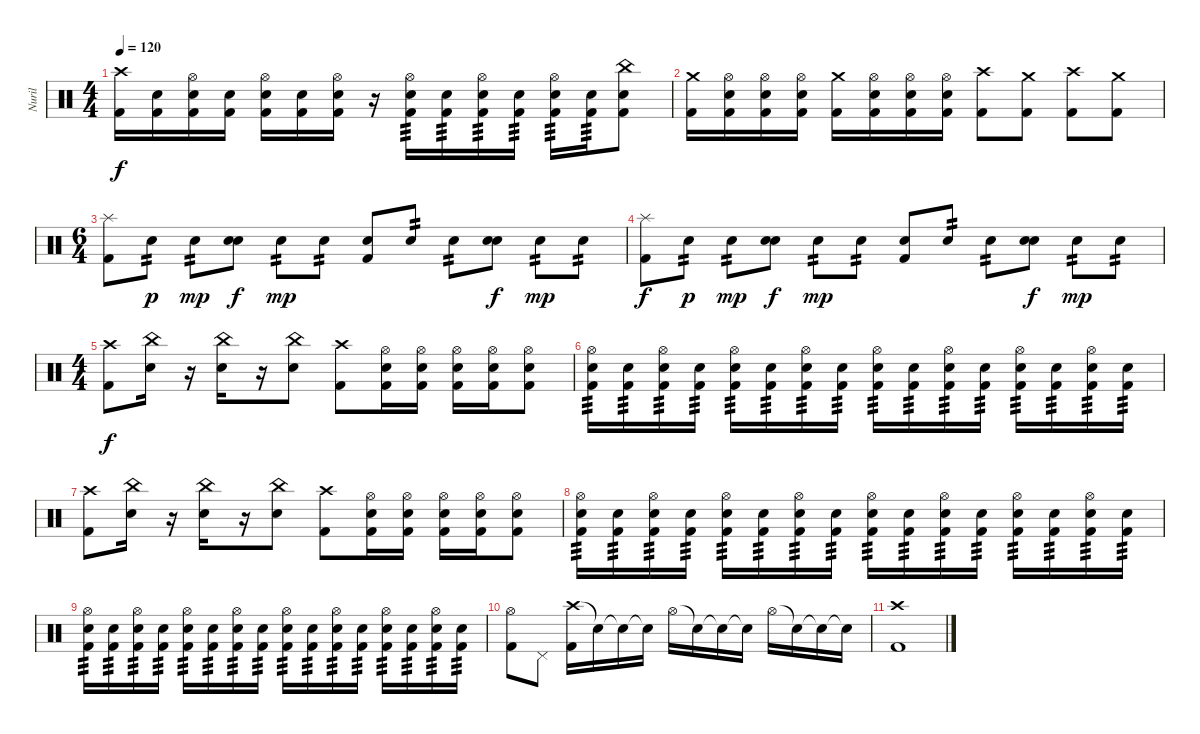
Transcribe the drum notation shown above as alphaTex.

\track ("Nuril" "Nuril") {instrument percussion}
\staff {score}
\articulation defaults
\ts (4 4)
\tempo 120
\clef neutral
\ks c
("Crash high (hit)" "Kick (hit) 2").16{dy f} ("Electric Snare (hit)" "Kick (hit) 2").16 ("Hi-Hat (open)" "Electric Snare (hit)" "Kick (hit) 2").16 ("Electric Snare (hit)" "Kick (hit) 2").16 ("Hi-Hat (open)" "Electric Snare (hit)" "Kick (hit) 2").16 ("Electric Snare (hit)" "Kick (hit) 2").16 ("Hi-Hat (open)" "Electric Snare (hit)" "Kick (hit) 2").16 r.16 ("Hi-Hat (open)" "Electric Snare (hit)" "Kick (hit) 2").16{tp 3} ("Electric Snare (hit)" "Kick (hit) 2").16{tp 3} ("Hi-Hat (open)" "Electric Snare (hit)" "Kick (hit) 2").16{tp 3} ("Electric Snare (hit)" "Kick (hit) 2").16{tp 3} ("Hi-Hat (open)" "Electric Snare (hit)" "Kick (hit) 2").16{tp 3} ("Electric Snare (hit)" "Kick (hit) 2").16{tp 3} ("China (hit)" "Electric Snare (hit)" "Kick (hit) 2").8 |
("Crash medium (hit)" "Kick (hit) 2").16 ("Hi-Hat (open)" "Electric Snare (hit)" "Kick (hit) 2").16 ("Hi-Hat (open)" "Electric Snare (hit)" "Kick (hit) 2").16 ("Hi-Hat (open)" "Electric Snare (hit)" "Kick (hit) 2").16 ("Crash medium (hit)" "Kick (hit) 2").16 ("Hi-Hat (open)" "Electric Snare (hit)" "Kick (hit) 2").16 ("Hi-Hat (open)" "Electric Snare (hit)" "Kick (hit) 2").16 ("Hi-Hat (open)" "Electric Snare (hit)" "Kick (hit) 2").16 ("Crash high (hit)" "Kick (hit) 2").8 ("Crash medium (hit)" "Kick (hit) 2").8 ("Crash high (hit)" "Kick (hit) 2").8 ("Crash medium (hit)" "Kick (hit) 2").8 |
\ts (6 4)
("Splash (hit)" "Kick (hit) 2").8 "Electric Snare (hit)".8{tp 2 dy p} "Electric Snare (hit)".8{tp 2 dy mp} ("Electric Snare (hit)" "Electric Snare (hit)").8{bd 240 dy f} "Electric Snare (hit)".8{tp 2 dy mp} "Electric Snare (hit)".8{tp 2} ("Electric Snare (hit)" "Kick (hit) 2").8 "Electric Snare (hit)".8{tp 2} "Electric Snare (hit)".8{tp 2} ("Electric Snare (hit)" "Electric Snare (hit)").8{bd 240 dy f} "Electric Snare (hit)".8{tp 2 dy mp} "Electric Snare (hit)".8{tp 2} |
("Splash (hit)" "Kick (hit) 2").8{dy f} "Electric Snare (hit)".8{tp 2 dy p} "Electric Snare (hit)".8{tp 2 dy mp} ("Electric Snare (hit)" "Electric Snare (hit)").8{bd 240 dy f} "Electric Snare (hit)".8{tp 2 dy mp} "Electric Snare (hit)".8{tp 2} ("Electric Snare (hit)" "Kick (hit) 2").8 "Electric Snare (hit)".8{tp 2} "Electric Snare (hit)".8{tp 2} ("Electric Snare (hit)" "Electric Snare (hit)").8{bd 240 dy f} "Electric Snare (hit)".8{tp 2 dy mp} "Electric Snare (hit)".8{tp 2} |
\ts (4 4)
("Crash high (hit)" "Kick (hit) 2").8{dy f} ("China (hit)" "Electric Snare (hit)").16 r.16 ("China (hit)" "Electric Snare (hit)").16 r.16 ("China (hit)" "Electric Snare (hit)").8 ("Crash high (hit)" "Kick (hit) 2").8 ("Hi-Hat (open)" "Electric Snare (hit)" "Kick (hit) 2").16 ("Hi-Hat (open)" "Electric Snare (hit)" "Kick (hit) 2").16 ("Hi-Hat (open)" "Electric Snare (hit)" "Kick (hit) 2").16 ("Hi-Hat (open)" "Electric Snare (hit)" "Kick (hit) 2").16 ("Hi-Hat (open)" "Electric Snare (hit)" "Kick (hit) 2").8 |
("Hi-Hat (open)" "Electric Snare (hit)" "Kick (hit) 2").16{tp 3} ("Electric Snare (hit)" "Kick (hit) 2").16{tp 3} ("Hi-Hat (open)" "Electric Snare (hit)" "Kick (hit) 2").16{tp 3} ("Electric Snare (hit)" "Kick (hit) 2").16{tp 3} ("Hi-Hat (open)" "Electric Snare (hit)" "Kick (hit) 2").16{tp 3} ("Electric Snare (hit)" "Kick (hit) 2").16{tp 3} ("Hi-Hat (open)" "Electric Snare (hit)" "Kick (hit) 2").16{tp 3} ("Electric Snare (hit)" "Kick (hit) 2").16{tp 3} ("Hi-Hat (open)" "Electric Snare (hit)" "Kick (hit) 2").16{tp 3} ("Electric Snare (hit)" "Kick (hit) 2").16{tp 3} ("Hi-Hat (open)" "Electric Snare (hit)" "Kick (hit) 2").16{tp 3} ("Electric Snare (hit)" "Kick (hit) 2").16{tp 3} ("Hi-Hat (open)" "Electric Snare (hit)" "Kick (hit) 2").16{tp 3} ("Electric Snare (hit)" "Kick (hit) 2").16{tp 3} ("Hi-Hat (open)" "Electric Snare (hit)" "Kick (hit) 2").16{tp 3} ("Electric Snare (hit)" "Kick (hit) 2").16{tp 3} |
("Crash high (hit)" "Kick (hit) 2").8 ("China (hit)" "Electric Snare (hit)").16 r.16 ("China (hit)" "Electric Snare (hit)").16 r.16 ("China (hit)" "Electric Snare (hit)").8 ("Crash high (hit)" "Kick (hit) 2").8 ("Hi-Hat (open)" "Electric Snare (hit)" "Kick (hit) 2").16 ("Hi-Hat (open)" "Electric Snare (hit)" "Kick (hit) 2").16 ("Hi-Hat (open)" "Electric Snare (hit)" "Kick (hit) 2").16 ("Hi-Hat (open)" "Electric Snare (hit)" "Kick (hit) 2").16 ("Hi-Hat (open)" "Electric Snare (hit)" "Kick (hit) 2").8 |
("Hi-Hat (open)" "Electric Snare (hit)" "Kick (hit) 2").16{tp 3} ("Electric Snare (hit)" "Kick (hit) 2").16{tp 3} ("Hi-Hat (open)" "Electric Snare (hit)" "Kick (hit) 2").16{tp 3} ("Electric Snare (hit)" "Kick (hit) 2").16{tp 3} ("Hi-Hat (open)" "Electric Snare (hit)" "Kick (hit) 2").16{tp 3} ("Electric Snare (hit)" "Kick (hit) 2").16{tp 3} ("Hi-Hat (open)" "Electric Snare (hit)" "Kick (hit) 2").16{tp 3} ("Electric Snare (hit)" "Kick (hit) 2").16{tp 3} ("Hi-Hat (open)" "Electric Snare (hit)" "Kick (hit) 2").16{tp 3} ("Electric Snare (hit)" "Kick (hit) 2").16{tp 3} ("Hi-Hat (open)" "Electric Snare (hit)" "Kick (hit) 2").16{tp 3} ("Electric Snare (hit)" "Kick (hit) 2").16{tp 3} ("Hi-Hat (open)" "Electric Snare (hit)" "Kick (hit) 2").16{tp 3} ("Electric Snare (hit)" "Kick (hit) 2").16{tp 3} ("Hi-Hat (open)" "Electric Snare (hit)" "Kick (hit) 2").16{tp 3} ("Electric Snare (hit)" "Kick (hit) 2").16{tp 3} |
("Hi-Hat (open)" "Electric Snare (hit)" "Kick (hit) 2").16{tp 3} ("Electric Snare (hit)" "Kick (hit) 2").16{tp 3} ("Hi-Hat (open)" "Electric Snare (hit)" "Kick (hit) 2").16{tp 3} ("Electric Snare (hit)" "Kick (hit) 2").16{tp 3} ("Hi-Hat (open)" "Electric Snare (hit)" "Kick (hit) 2").16{tp 3} ("Electric Snare (hit)" "Kick (hit) 2").16{tp 3} ("Hi-Hat (open)" "Electric Snare (hit)" "Kick (hit) 2").16{tp 3} ("Electric Snare (hit)" "Kick (hit) 2").16{tp 3} ("Hi-Hat (open)" "Electric Snare (hit)" "Kick (hit) 2").16{tp 3} ("Electric Snare (hit)" "Kick (hit) 2").16{tp 3} ("Hi-Hat (open)" "Electric Snare (hit)" "Kick (hit) 2").16{tp 3} ("Electric Snare (hit)" "Kick (hit) 2").16{tp 3} ("Hi-Hat (open)" "Electric Snare (hit)" "Kick (hit) 2").16{tp 3} ("Electric Snare (hit)" "Kick (hit) 2").16{tp 3} ("Hi-Hat (open)" "Electric Snare (hit)" "Kick (hit) 2").16{tp 3} ("Electric Snare (hit)" "Kick (hit) 2").16{tp 3} |
("Hi-Hat (open)" "Kick (hit) 2").8 "Pedal Hi-Hat (hit)".8 ("Crash high (hit)" "Kick (hit) 2").16 "Snare (hit)"{t}.16 "Snare (hit)"{t}.16 "Snare (hit)"{t}.16 "Hi-Hat (open)".16 "Snare (hit)"{t}.16 "Snare (hit)"{t}.16 "Snare (hit)"{t}.16 "Hi-Hat (open)".16 "Snare (hit)"{t}.16 "Snare (hit)"{t}.16 "Snare (hit)"{t}.16 |
("Crash high (hit)" "Kick (hit) 2").1
